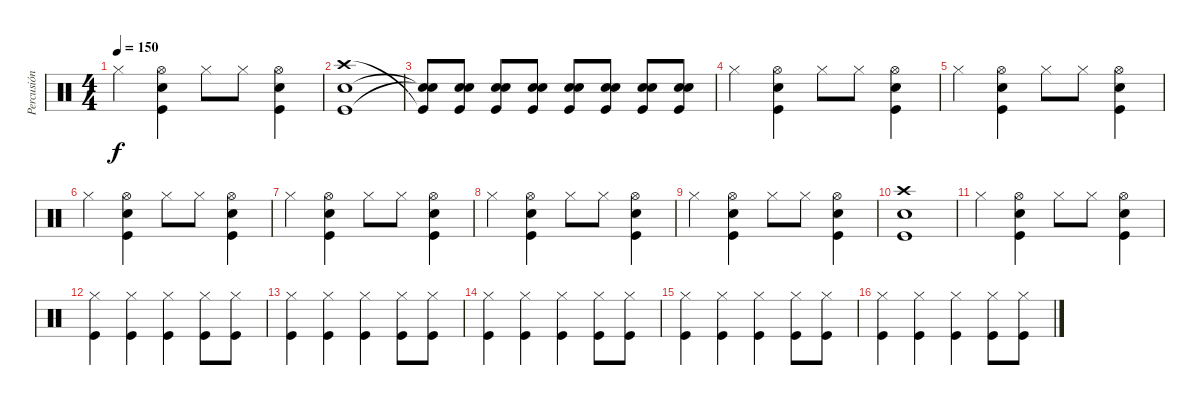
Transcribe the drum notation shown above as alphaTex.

\track ("Percusión" "Percusión") {instrument percussion}
\staff {score}
\articulation defaults
\ts (4 4)
\tempo 150
\clef neutral
\ks c "Hi-Hat (closed)".4{dy f}
("Kick (hit)" "Snare (hit) 2" "Hi-Hat (open)").4 "Hi-Hat (closed)".8 "Hi-Hat (closed)".8 ("Kick (hit)" "Snare (hit) 2" "Hi-Hat (open)").4 |
("Kick (hit)" "Snare (hit) 2" "Crash high (hit)").1 |
("Snare (hit) 2"{t} "Snare (hit) 2"{t} "Kick (hit)"{t}).8 ("Snare (hit) 2" "Snare (hit) 2" "Kick (hit)").8 ("Snare (hit) 2" "Snare (hit) 2" "Kick (hit)").8 ("Snare (hit) 2" "Snare (hit) 2" "Kick (hit)").8 ("Snare (hit) 2" "Snare (hit) 2" "Kick (hit)").8 ("Snare (hit) 2" "Snare (hit) 2" "Kick (hit)").8 ("Snare (hit) 2" "Snare (hit) 2" "Kick (hit)").8 ("Snare (hit) 2" "Snare (hit) 2" "Kick (hit)").8 |
"Hi-Hat (closed)".4 ("Kick (hit)" "Snare (hit) 2" "Hi-Hat (open)").4 "Hi-Hat (closed)".8 "Hi-Hat (closed)".8 ("Kick (hit)" "Snare (hit) 2" "Hi-Hat (open)").4 |
"Hi-Hat (closed)".4 ("Kick (hit)" "Snare (hit) 2" "Hi-Hat (open)").4 "Hi-Hat (closed)".8 "Hi-Hat (closed)".8 ("Kick (hit)" "Snare (hit) 2" "Hi-Hat (open)").4 |
"Hi-Hat (closed)".4 ("Kick (hit)" "Snare (hit) 2" "Hi-Hat (open)").4 "Hi-Hat (closed)".8 "Hi-Hat (closed)".8 ("Kick (hit)" "Snare (hit) 2" "Hi-Hat (open)").4 |
"Hi-Hat (closed)".4 ("Kick (hit)" "Snare (hit) 2" "Hi-Hat (open)").4 "Hi-Hat (closed)".8 "Hi-Hat (closed)".8 ("Kick (hit)" "Snare (hit) 2" "Hi-Hat (open)").4 |
"Hi-Hat (closed)".4 ("Kick (hit)" "Snare (hit) 2" "Hi-Hat (open)").4 "Hi-Hat (closed)".8 "Hi-Hat (closed)".8 ("Kick (hit)" "Snare (hit) 2" "Hi-Hat (open)").4 |
"Hi-Hat (closed)".4 ("Kick (hit)" "Snare (hit) 2" "Hi-Hat (open)").4 "Hi-Hat (closed)".8 "Hi-Hat (closed)".8 ("Kick (hit)" "Snare (hit) 2" "Hi-Hat (open)").4 |
("Kick (hit)" "Snare (hit) 2" "Crash high (hit)").1 |
"Hi-Hat (closed)".4 ("Kick (hit)" "Snare (hit) 2" "Hi-Hat (open)").4 "Hi-Hat (closed)".8 "Hi-Hat (closed)".8 ("Kick (hit)" "Snare (hit) 2" "Hi-Hat (open)").4 |
("Hi-Hat (closed)" "Kick (hit)").4 ("Hi-Hat (closed)" "Kick (hit)").4 ("Hi-Hat (closed)" "Kick (hit)").4 ("Hi-Hat (closed)" "Kick (hit)").8 ("Hi-Hat (closed)" "Kick (hit)").8 |
("Hi-Hat (closed)" "Kick (hit)").4 ("Hi-Hat (closed)" "Kick (hit)").4 ("Hi-Hat (closed)" "Kick (hit)").4 ("Hi-Hat (closed)" "Kick (hit)").8 ("Hi-Hat (closed)" "Kick (hit)").8 |
("Hi-Hat (closed)" "Kick (hit)").4 ("Hi-Hat (closed)" "Kick (hit)").4 ("Hi-Hat (closed)" "Kick (hit)").4 ("Hi-Hat (closed)" "Kick (hit)").8 ("Hi-Hat (closed)" "Kick (hit)").8 |
("Hi-Hat (closed)" "Kick (hit)").4 ("Hi-Hat (closed)" "Kick (hit)").4 ("Hi-Hat (closed)" "Kick (hit)").4 ("Hi-Hat (closed)" "Kick (hit)").8 ("Hi-Hat (closed)" "Kick (hit)").8 |
("Hi-Hat (closed)" "Kick (hit)").4 ("Hi-Hat (closed)" "Kick (hit)").4 ("Hi-Hat (closed)" "Kick (hit)").4 ("Hi-Hat (closed)" "Kick (hit)").8 ("Hi-Hat (closed)" "Kick (hit)").8
